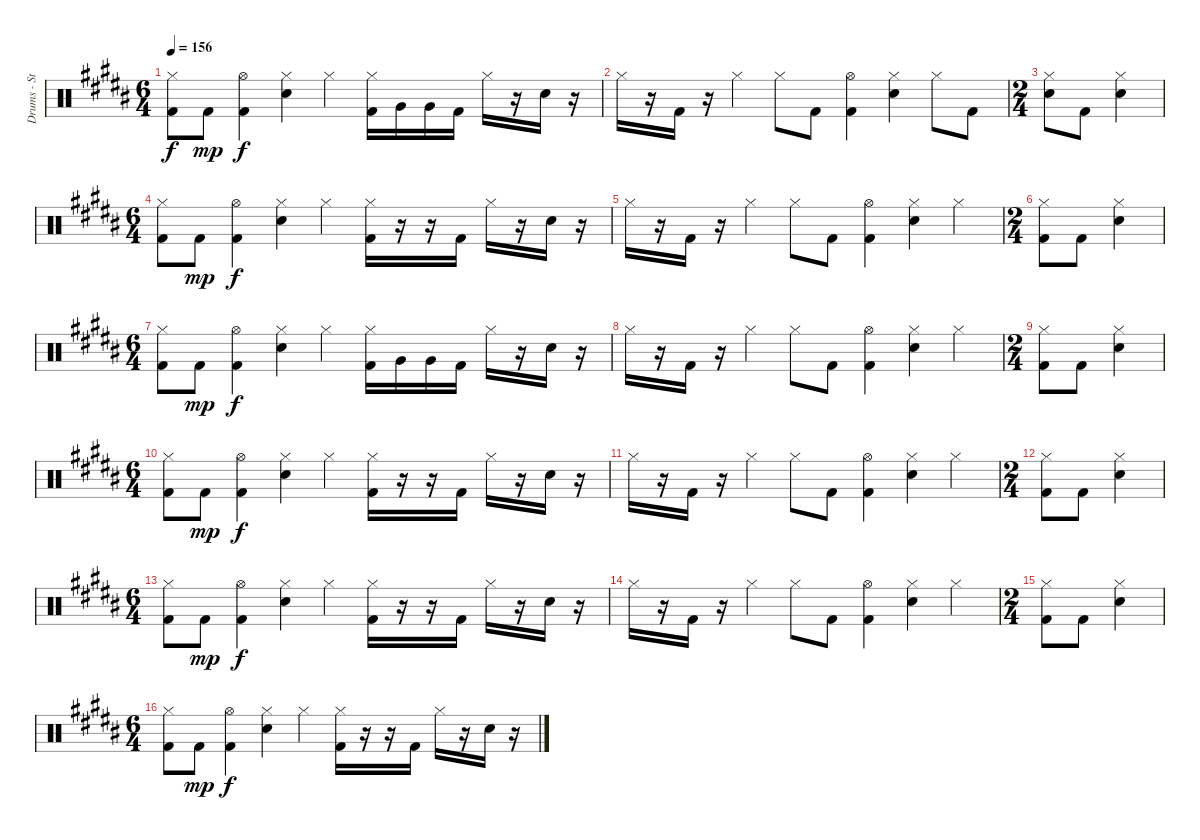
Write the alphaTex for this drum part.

\track ("Drums - Steve Judd" "Drums - St") {instrument percussion}
\staff {score}
\articulation defaults
\ts (6 4)
\tempo 156
\clef neutral
\ks b
("Hi-Hat (closed)" "Kick (hit) 2").8{dy f} "Kick (hit) 2".8{dy mp} ("Hi-Hat (open)" "Kick (hit) 2").4{dy f} ("Electric Snare (hit)" "Hi-Hat (closed)").4 "Hi-Hat (closed)".4 ("Hi-Hat (closed)" "Kick (hit) 2").16 "Very Low Tom (hit)".16 "Very Low Tom (hit)".16 "Kick (hit) 2".16 "Hi-Hat (closed)".16 r.16 "Electric Snare (hit)".16 r.16 |
"Hi-Hat (closed)".16 r.16 "Kick (hit) 2".16 r.16 "Hi-Hat (closed)".4 "Hi-Hat (closed)".8 "Kick (hit) 2".8 ("Hi-Hat (open)" "Kick (hit) 2").4 ("Electric Snare (hit)" "Hi-Hat (closed)").4 "Hi-Hat (closed)".8 "Kick (hit) 2".8 |
\ts (2 4)
("Electric Snare (hit)" "Hi-Hat (closed)").8 "Kick (hit) 2".8 ("Electric Snare (hit)" "Hi-Hat (closed)").4 |
\ts (6 4)
("Hi-Hat (closed)" "Kick (hit) 2").8 "Kick (hit) 2".8{dy mp} ("Hi-Hat (open)" "Kick (hit) 2").4{dy f} ("Electric Snare (hit)" "Hi-Hat (closed)").4 "Hi-Hat (closed)".4 ("Hi-Hat (closed)" "Kick (hit) 2").16 r.16 r.16 "Kick (hit) 2".16 "Hi-Hat (closed)".16 r.16 "Electric Snare (hit)".16 r.16 |
"Hi-Hat (closed)".16 r.16 "Kick (hit) 2".16 r.16 "Hi-Hat (closed)".4 "Hi-Hat (closed)".8 "Kick (hit) 2".8 ("Hi-Hat (open)" "Kick (hit) 2").4 ("Electric Snare (hit)" "Hi-Hat (closed)").4 "Hi-Hat (closed)".4 |
\ts (2 4)
("Hi-Hat (closed)" "Kick (hit) 2").8 "Kick (hit) 2".8 ("Electric Snare (hit)" "Hi-Hat (closed)").4 |
\ts (6 4)
("Hi-Hat (closed)" "Kick (hit) 2").8 "Kick (hit) 2".8{dy mp} ("Hi-Hat (open)" "Kick (hit) 2").4{dy f} ("Electric Snare (hit)" "Hi-Hat (closed)").4 "Hi-Hat (closed)".4 ("Hi-Hat (closed)" "Kick (hit) 2").16 "Very Low Tom (hit)".16 "Very Low Tom (hit)".16 "Kick (hit) 2".16 "Hi-Hat (closed)".16 r.16 "Electric Snare (hit)".16 r.16 |
"Hi-Hat (closed)".16 r.16 "Kick (hit) 2".16 r.16 "Hi-Hat (closed)".4 "Hi-Hat (closed)".8 "Kick (hit) 2".8 ("Hi-Hat (open)" "Kick (hit) 2").4 ("Electric Snare (hit)" "Hi-Hat (closed)").4 "Hi-Hat (closed)".4 |
\ts (2 4)
("Hi-Hat (closed)" "Kick (hit) 2").8 "Kick (hit) 2".8 ("Electric Snare (hit)" "Hi-Hat (closed)").4 |
\ts (6 4)
("Hi-Hat (closed)" "Kick (hit) 2").8 "Kick (hit) 2".8{dy mp} ("Hi-Hat (open)" "Kick (hit) 2").4{dy f} ("Electric Snare (hit)" "Hi-Hat (closed)").4 "Hi-Hat (closed)".4 ("Hi-Hat (closed)" "Kick (hit) 2").16 r.16 r.16 "Kick (hit) 2".16 "Hi-Hat (closed)".16 r.16 "Electric Snare (hit)".16 r.16 |
"Hi-Hat (closed)".16 r.16 "Kick (hit) 2".16 r.16 "Hi-Hat (closed)".4 "Hi-Hat (closed)".8 "Kick (hit) 2".8 ("Hi-Hat (open)" "Kick (hit) 2").4 ("Electric Snare (hit)" "Hi-Hat (closed)").4 "Hi-Hat (closed)".4 |
\ts (2 4)
("Hi-Hat (closed)" "Kick (hit) 2").8 "Kick (hit) 2".8 ("Electric Snare (hit)" "Hi-Hat (closed)").4 |
\ts (6 4)
("Hi-Hat (closed)" "Kick (hit) 2").8 "Kick (hit) 2".8{dy mp} ("Hi-Hat (open)" "Kick (hit) 2").4{dy f} ("Electric Snare (hit)" "Hi-Hat (closed)").4 "Hi-Hat (closed)".4 ("Hi-Hat (closed)" "Kick (hit) 2").16 r.16 r.16 "Kick (hit) 2".16 "Hi-Hat (closed)".16 r.16 "Electric Snare (hit)".16 r.16 |
"Hi-Hat (closed)".16 r.16 "Kick (hit) 2".16 r.16 "Hi-Hat (closed)".4 "Hi-Hat (closed)".8 "Kick (hit) 2".8 ("Hi-Hat (open)" "Kick (hit) 2").4 ("Electric Snare (hit)" "Hi-Hat (closed)").4 "Hi-Hat (closed)".4 |
\ts (2 4)
("Hi-Hat (closed)" "Kick (hit) 2").8 "Kick (hit) 2".8 ("Electric Snare (hit)" "Hi-Hat (closed)").4 |
\ts (6 4)
("Hi-Hat (closed)" "Kick (hit) 2").8 "Kick (hit) 2".8{dy mp} ("Hi-Hat (open)" "Kick (hit) 2").4{dy f} ("Electric Snare (hit)" "Hi-Hat (closed)").4 "Hi-Hat (closed)".4 ("Hi-Hat (closed)" "Kick (hit) 2").16 r.16 r.16 "Kick (hit) 2".16 "Hi-Hat (closed)".16 r.16 "Electric Snare (hit)".16 r.16
